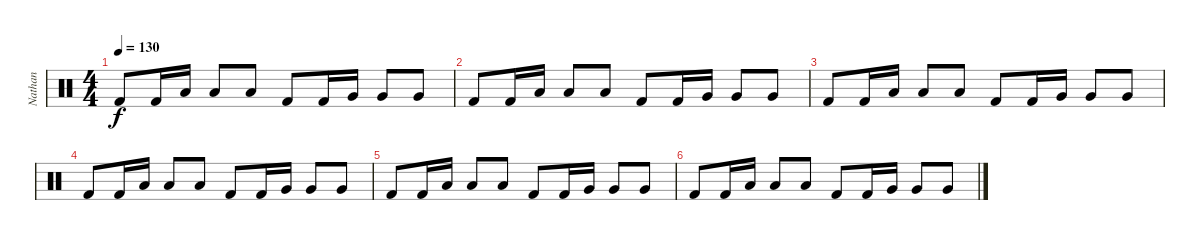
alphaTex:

\track ("Nathan" "Nathan") {instrument percussion}
\staff {score}
\articulation defaults
\ts (4 4)
\tempo 130
\clef neutral
\ks c "Kick (hit) 2".8{dy f} "Kick (hit) 2".16 "Low Tom (hit)".16 "Low Tom (hit)".8 "Low Tom (hit)".8 "Kick (hit) 2".8 "Kick (hit) 2".16 "Very Low Tom (hit)".16 "Very Low Tom (hit)".8 "Very Low Tom (hit)".8
|
"Kick (hit) 2".8 "Kick (hit) 2".16 "Low Tom (hit)".16 "Low Tom (hit)".8 "Low Tom (hit)".8 "Kick (hit) 2".8 "Kick (hit) 2".16 "Very Low Tom (hit)".16 "Very Low Tom (hit)".8 "Very Low Tom (hit)".8 |
"Kick (hit) 2".8 "Kick (hit) 2".16 "Low Tom (hit)".16 "Low Tom (hit)".8 "Low Tom (hit)".8 "Kick (hit) 2".8 "Kick (hit) 2".16 "Very Low Tom (hit)".16 "Very Low Tom (hit)".8 "Very Low Tom (hit)".8 |
"Kick (hit) 2".8 "Kick (hit) 2".16 "Low Tom (hit)".16 "Low Tom (hit)".8 "Low Tom (hit)".8 "Kick (hit) 2".8 "Kick (hit) 2".16 "Very Low Tom (hit)".16 "Very Low Tom (hit)".8 "Very Low Tom (hit)".8 |
"Kick (hit) 2".8 "Kick (hit) 2".16 "Low Tom (hit)".16 "Low Tom (hit)".8 "Low Tom (hit)".8 "Kick (hit) 2".8 "Kick (hit) 2".16 "Very Low Tom (hit)".16 "Very Low Tom (hit)".8 "Very Low Tom (hit)".8 |
"Kick (hit) 2".8 "Kick (hit) 2".16 "Low Tom (hit)".16 "Low Tom (hit)".8 "Low Tom (hit)".8 "Kick (hit) 2".8 "Kick (hit) 2".16 "Very Low Tom (hit)".16 "Very Low Tom (hit)".8 "Very Low Tom (hit)".8
